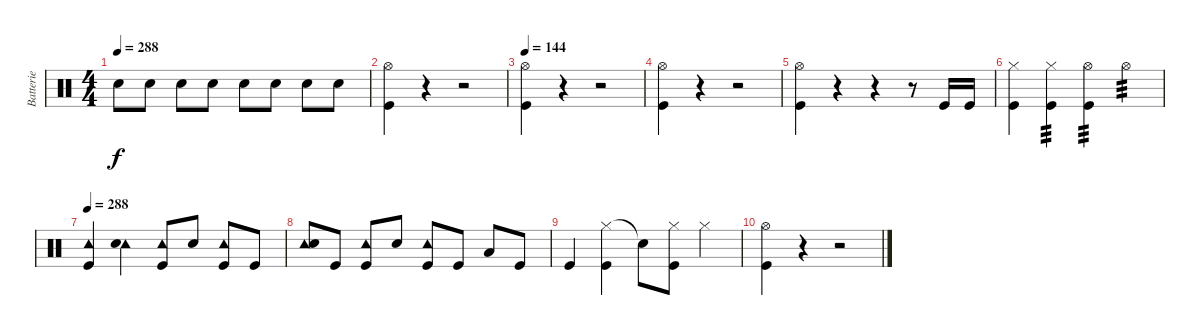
\track ("Batterie" "Batterie") {instrument percussion}
\staff {score}
\articulation defaults
\ts (4 4)
\tempo 288
\clef neutral
\ks c "Snare (hit) 2".8{dy f} "Snare (hit) 2".8 "Snare (hit) 2".8 "Snare (hit) 2".8 "Snare (hit) 2".8 "Snare (hit) 2".8 "Snare (hit) 2".8 "Snare (hit) 2".8
|
("Hi-Hat (open)" "Kick (hit)").4 r.4 r.2 |
\tempo 144
("Hi-Hat (open)" "Kick (hit)").4 r.4 r.2 |
("Hi-Hat (open)" "Kick (hit)").4 r.4 r.2 |
("Hi-Hat (open)" "Kick (hit)").4 r.4 r.4 r.8 "Kick (hit)".16 "Kick (hit)".16 |
("Hi-Hat (closed)" "Kick (hit)").4 ("Hi-Hat (closed)" "Kick (hit)").4{tp 3} ("Hi-Hat (open)" "Kick (hit)").4{tp 3} "Hi-Hat (open)".4{tp 3} |
\tempo 288
("Tambourine (hit)" "Kick (hit)").4 ("Tambourine (hit)" "Snare (hit) 2").4 ("Tambourine (hit)" "Kick (hit)").8 "Snare (hit) 2".8 ("Tambourine (hit)" "Kick (hit)").8 "Kick (hit)".8 |
("Tambourine (hit)" "Snare (hit) 2").8 "Kick (hit)".8 ("Tambourine (hit)" "Kick (hit)").8 "Snare (hit) 2".8 ("Tambourine (hit)" "Kick (hit)").8 "Kick (hit)".8 "Low Tom (hit)".8 "Kick (hit)".8 |
"Kick (hit)".4 ("Hi-Hat (closed)" "Kick (hit)").4 "Snare (hit)"{t}.8 ("Hi-Hat (closed)" "Kick (hit)").8 "Hi-Hat (closed)".4 |
("Hi-Hat (open)" "Kick (hit)").4 r.4 r.2
